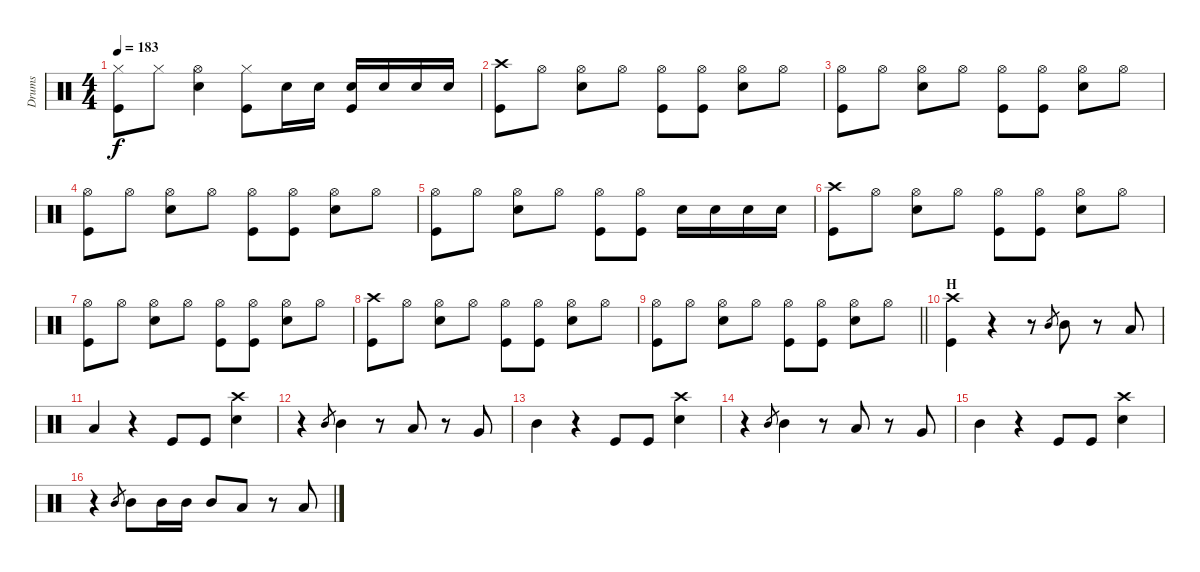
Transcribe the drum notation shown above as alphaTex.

\track ("Drums" "Drums") {instrument percussion}
\staff {score}
\articulation defaults
\ts (4 4)
\tempo 183
\clef neutral
\ks c
("Hi-Hat (closed)" "Kick (hit)").8{dy f} "Hi-Hat (closed)".8 ("Hi-Hat (open)" "Electric Snare (hit)").4 ("Hi-Hat (closed)" "Kick (hit)").8 "Electric Snare (hit)".16 "Electric Snare (hit)".16 ("Electric Snare (hit)" "Kick (hit)").16 "Electric Snare (hit)".16 "Electric Snare (hit)".16 "Electric Snare (hit)".16 |
("Crash high (hit)" "Kick (hit)").8 "Hi-Hat (open)".8 ("Hi-Hat (open)" "Electric Snare (hit)").8 "Hi-Hat (open)".8 ("Hi-Hat (open)" "Kick (hit)").8 ("Hi-Hat (open)" "Kick (hit)").8 ("Hi-Hat (open)" "Electric Snare (hit)").8 "Hi-Hat (open)".8 |
("Hi-Hat (open)" "Kick (hit)").8 "Hi-Hat (open)".8 ("Hi-Hat (open)" "Electric Snare (hit)").8 "Hi-Hat (open)".8 ("Hi-Hat (open)" "Kick (hit)").8 ("Hi-Hat (open)" "Kick (hit)").8 ("Hi-Hat (open)" "Electric Snare (hit)").8 "Hi-Hat (open)".8 |
("Hi-Hat (open)" "Kick (hit)").8 "Hi-Hat (open)".8 ("Hi-Hat (open)" "Electric Snare (hit)").8 "Hi-Hat (open)".8 ("Hi-Hat (open)" "Kick (hit)").8 ("Hi-Hat (open)" "Kick (hit)").8 ("Hi-Hat (open)" "Electric Snare (hit)").8 "Hi-Hat (open)".8 |
("Hi-Hat (open)" "Kick (hit)").8 "Hi-Hat (open)".8 ("Hi-Hat (open)" "Electric Snare (hit)").8 "Hi-Hat (open)".8 ("Hi-Hat (open)" "Kick (hit)").8 ("Hi-Hat (open)" "Kick (hit)").8 "Electric Snare (hit)".16 "Electric Snare (hit)".16 "Electric Snare (hit)".16 "Electric Snare (hit)".16 |
("Crash high (hit)" "Kick (hit)").8 "Hi-Hat (open)".8 ("Hi-Hat (open)" "Electric Snare (hit)").8 "Hi-Hat (open)".8 ("Hi-Hat (open)" "Kick (hit)").8 ("Hi-Hat (open)" "Kick (hit)").8 ("Hi-Hat (open)" "Electric Snare (hit)").8 "Hi-Hat (open)".8 |
("Hi-Hat (open)" "Kick (hit)").8 "Hi-Hat (open)".8 ("Hi-Hat (open)" "Electric Snare (hit)").8 "Hi-Hat (open)".8 ("Hi-Hat (open)" "Kick (hit)").8 ("Hi-Hat (open)" "Kick (hit)").8 ("Hi-Hat (open)" "Electric Snare (hit)").8 "Hi-Hat (open)".8 |
("Crash high (hit)" "Kick (hit)").8 "Hi-Hat (open)".8 ("Hi-Hat (open)" "Electric Snare (hit)").8 "Hi-Hat (open)".8 ("Hi-Hat (open)" "Kick (hit)").8 ("Hi-Hat (open)" "Kick (hit)").8 ("Hi-Hat (open)" "Electric Snare (hit)").8 "Hi-Hat (open)".8 |
\barLineRight lightlight
("Hi-Hat (open)" "Kick (hit)").8 "Hi-Hat (open)".8 ("Hi-Hat (open)" "Electric Snare (hit)").8 "Hi-Hat (open)".8 ("Hi-Hat (open)" "Kick (hit)").8 ("Hi-Hat (open)" "Kick (hit)").8 ("Hi-Hat (open)" "Electric Snare (hit)").8 "Hi-Hat (open)".8 |
\section ("" "H")
("Crash high (hit)" "Kick (hit)").4 r.4 r.8 "Mid Tom (hit)".8{gr} "Mid Tom (hit)".8 r.8 "Low Tom (hit)".8 |
"Low Tom (hit)".4 r.4 "Kick (hit)".8 "Kick (hit)".8 ("Crash high (hit)" "Electric Snare (hit)").4 |
r.4 "Mid Tom (hit)".8{gr} "Mid Tom (hit)".4 r.8 "Low Tom (hit)".8 r.8 "Very Low Tom (hit)".8 |
"Mid Tom (hit)".4 r.4 "Kick (hit)".8 "Kick (hit)".8 ("Crash high (hit)" "Electric Snare (hit)").4 |
r.4 "Mid Tom (hit)".8{gr} "Mid Tom (hit)".4 r.8 "Low Tom (hit)".8 r.8 "Very Low Tom (hit)".8 |
"Mid Tom (hit)".4 r.4 "Kick (hit)".8 "Kick (hit)".8 ("Crash high (hit)" "Electric Snare (hit)").4 |
r.4 "Mid Tom (hit)".8{gr} "Mid Tom (hit)".8 "Mid Tom (hit)".16 "Mid Tom (hit)".16 "Mid Tom (hit)".8 "Low Tom (hit)".8 r.8 "Low Tom (hit)".8
